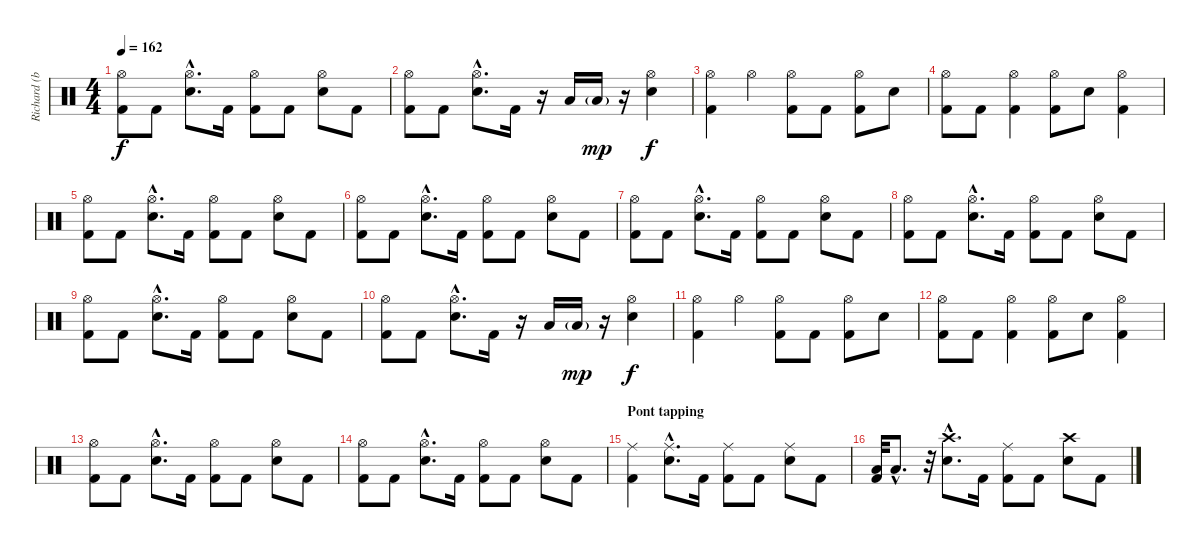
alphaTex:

\track ("Richard (batterie)" "Richard (b") {instrument percussion}
\staff {score}
\articulation defaults
\ts (4 4)
\tempo 162
\clef neutral
\ks c
("Hi-Hat (open)" "Kick (hit) 2").8{dy f} "Kick (hit) 2".8 ("Hi-Hat (open)"{hac} "Snare (hit) 2"{hac}).8{d} "Kick (hit) 2".16 ("Hi-Hat (open)" "Kick (hit) 2").8 "Kick (hit) 2".8 ("Hi-Hat (open)" "Snare (hit) 2").8 "Kick (hit) 2".8 |
("Hi-Hat (open)" "Kick (hit) 2").8 "Kick (hit) 2".8 ("Hi-Hat (open)"{hac} "Snare (hit) 2"{hac}).8{d} "Kick (hit) 2".16 r.16 "Low Tom (hit)".16 "Low Tom (hit)"{g}.16{dy mp} r.16 ("Hi-Hat (open)" "Snare (hit) 2").4{dy f} |
("Hi-Hat (open)" "Kick (hit) 2").4 "Hi-Hat (open)".4 ("Hi-Hat (open)" "Kick (hit) 2").8 "Kick (hit) 2".8 ("Hi-Hat (open)" "Kick (hit) 2").8 "Snare (hit) 2".8 |
("Hi-Hat (open)" "Kick (hit) 2").8 "Kick (hit) 2".8 ("Hi-Hat (open)" "Kick (hit) 2").4 ("Hi-Hat (open)" "Kick (hit) 2").8 "Snare (hit) 2".8 ("Hi-Hat (open)" "Kick (hit) 2").4 |
("Hi-Hat (open)" "Kick (hit) 2").8 "Kick (hit) 2".8 ("Hi-Hat (open)"{hac} "Snare (hit) 2"{hac}).8{d} "Kick (hit) 2".16 ("Hi-Hat (open)" "Kick (hit) 2").8 "Kick (hit) 2".8 ("Hi-Hat (open)" "Snare (hit) 2").8 "Kick (hit) 2".8 |
("Hi-Hat (open)" "Kick (hit) 2").8 "Kick (hit) 2".8 ("Hi-Hat (open)"{hac} "Snare (hit) 2"{hac}).8{d} "Kick (hit) 2".16 ("Hi-Hat (open)" "Kick (hit) 2").8 "Kick (hit) 2".8 ("Hi-Hat (open)" "Snare (hit) 2").8 "Kick (hit) 2".8 |
("Hi-Hat (open)" "Kick (hit) 2").8 "Kick (hit) 2".8 ("Hi-Hat (open)"{hac} "Snare (hit) 2"{hac}).8{d} "Kick (hit) 2".16 ("Hi-Hat (open)" "Kick (hit) 2").8 "Kick (hit) 2".8 ("Hi-Hat (open)" "Snare (hit) 2").8 "Kick (hit) 2".8 |
("Hi-Hat (open)" "Kick (hit) 2").8 "Kick (hit) 2".8 ("Hi-Hat (open)"{hac} "Snare (hit) 2"{hac}).8{d} "Kick (hit) 2".16 ("Hi-Hat (open)" "Kick (hit) 2").8 "Kick (hit) 2".8 ("Hi-Hat (open)" "Snare (hit) 2").8 "Kick (hit) 2".8 |
("Hi-Hat (open)" "Kick (hit) 2").8 "Kick (hit) 2".8 ("Hi-Hat (open)"{hac} "Snare (hit) 2"{hac}).8{d} "Kick (hit) 2".16 ("Hi-Hat (open)" "Kick (hit) 2").8 "Kick (hit) 2".8 ("Hi-Hat (open)" "Snare (hit) 2").8 "Kick (hit) 2".8 |
("Hi-Hat (open)" "Kick (hit) 2").8 "Kick (hit) 2".8 ("Hi-Hat (open)"{hac} "Snare (hit) 2"{hac}).8{d} "Kick (hit) 2".16 r.16 "Low Tom (hit)".16 "Low Tom (hit)"{g}.16{dy mp} r.16 ("Hi-Hat (open)" "Snare (hit) 2").4{dy f} |
("Hi-Hat (open)" "Kick (hit) 2").4 "Hi-Hat (open)".4 ("Hi-Hat (open)" "Kick (hit) 2").8 "Kick (hit) 2".8 ("Hi-Hat (open)" "Kick (hit) 2").8 "Snare (hit) 2".8 |
("Hi-Hat (open)" "Kick (hit) 2").8 "Kick (hit) 2".8 ("Hi-Hat (open)" "Kick (hit) 2").4 ("Hi-Hat (open)" "Kick (hit) 2").8 "Snare (hit) 2".8 ("Hi-Hat (open)" "Kick (hit) 2").4 |
("Hi-Hat (open)" "Kick (hit) 2").8 "Kick (hit) 2".8 ("Hi-Hat (open)"{hac} "Snare (hit) 2"{hac}).8{d} "Kick (hit) 2".16 ("Hi-Hat (open)" "Kick (hit) 2").8 "Kick (hit) 2".8 ("Hi-Hat (open)" "Snare (hit) 2").8 "Kick (hit) 2".8 |
("Hi-Hat (open)" "Kick (hit) 2").8 "Kick (hit) 2".8 ("Hi-Hat (open)"{hac} "Snare (hit) 2"{hac}).8{d} "Kick (hit) 2".16 ("Hi-Hat (open)" "Kick (hit) 2").8 "Kick (hit) 2".8 ("Hi-Hat (open)" "Snare (hit) 2").8 "Kick (hit) 2".8 |
\section ("" "Pont tapping")
("Ride (middle)" "Kick (hit) 2").4 ("Ride (middle)"{hac} "Snare (hit) 2"{hac}).8{d} "Kick (hit) 2".16 ("Ride (middle)" "Kick (hit) 2").8 "Kick (hit) 2".8 ("Ride (middle)" "Snare (hit) 2").8 "Kick (hit) 2".8 |
("Low Tom (hit)" "Kick (hit) 2").32 "Low Tom (hit)"{hac}.8{d} r.32 ("Crash high (hit)"{hac} "Snare (hit) 2"{hac}).8{d} "Kick (hit) 2".16 ("Ride (middle)" "Kick (hit) 2").8 "Kick (hit) 2".8 ("Crash high (hit)" "Snare (hit) 2").8 "Kick (hit) 2".8
